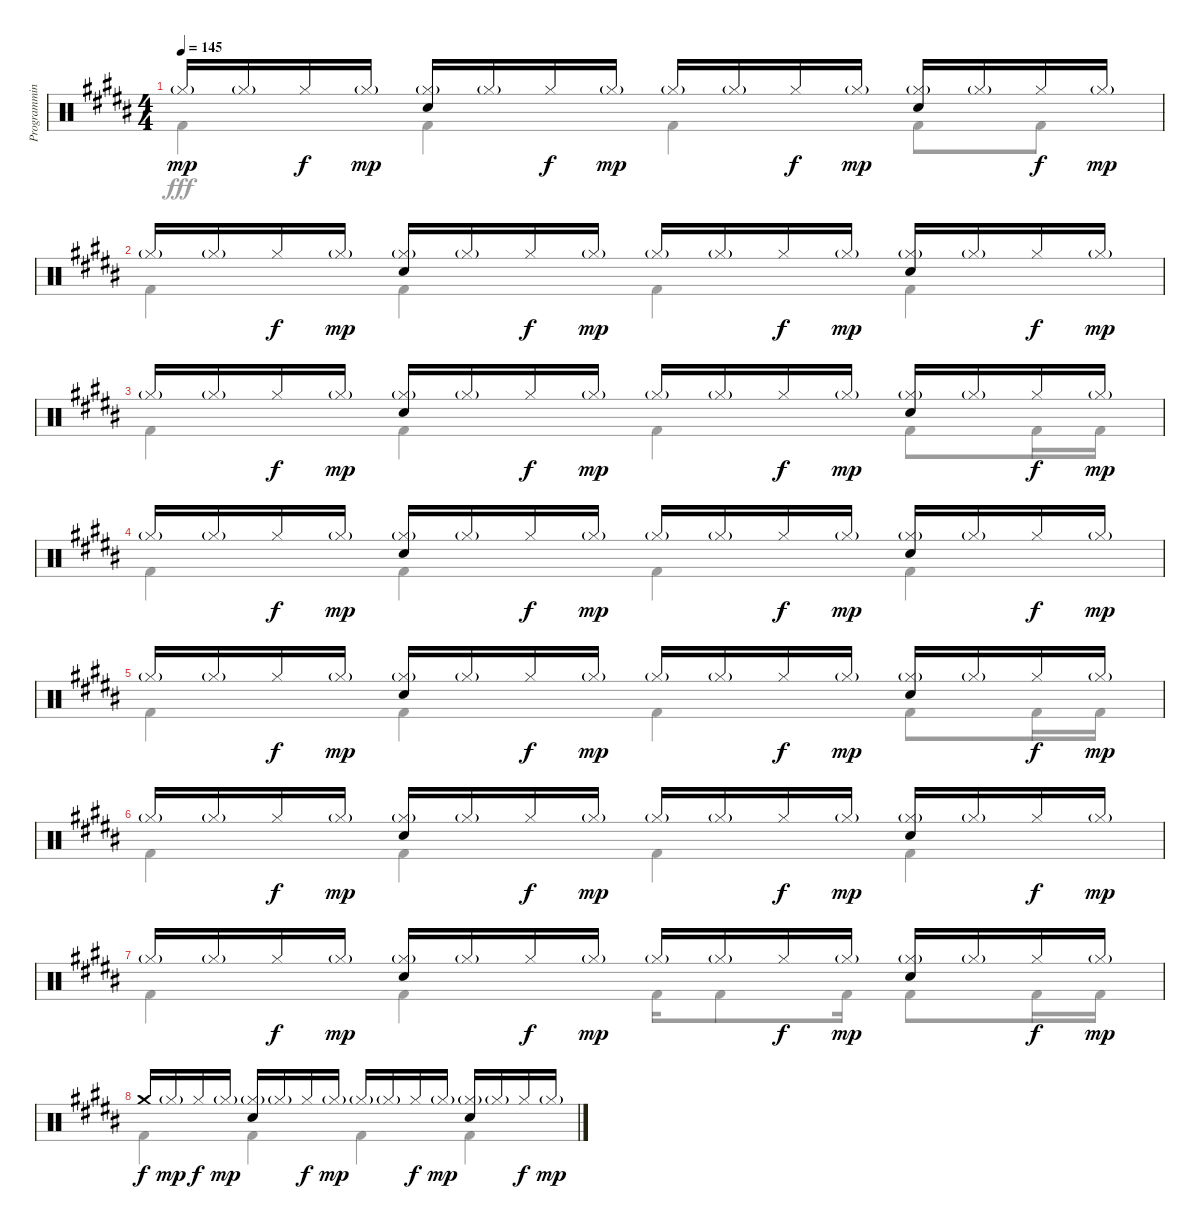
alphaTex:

\track ("Programming Drums I" "Programmin") {instrument percussion}
\staff {score}
\articulation defaults
\voice
\ts (4 4)
\tempo 145
\clef neutral
\ks b "Hi-Hat (closed)"{g}.16{dy mp} "Hi-Hat (closed)"{g}.16 "Hi-Hat (closed)".16{dy f} "Hi-Hat (closed)"{g}.16{dy mp}
("Hi-Hat (closed)"{g} "Snare (hit) 2").16 "Hi-Hat (closed)"{g}.16 "Hi-Hat (closed)".16{dy f} "Hi-Hat (closed)"{g}.16{dy mp} "Hi-Hat (closed)"{g}.16 "Hi-Hat (closed)"{g}.16 "Hi-Hat (closed)".16{dy f} "Hi-Hat (closed)"{g}.16{dy mp} ("Hi-Hat (closed)"{g} "Snare (hit) 2").16 "Hi-Hat (closed)"{g}.16 "Hi-Hat (closed)".16{dy f} "Hi-Hat (closed)"{g}.16{dy mp} |
"Hi-Hat (closed)"{g}.16 "Hi-Hat (closed)"{g}.16 "Hi-Hat (closed)".16{dy f} "Hi-Hat (closed)"{g}.16{dy mp} ("Hi-Hat (closed)"{g} "Snare (hit) 2").16 "Hi-Hat (closed)"{g}.16 "Hi-Hat (closed)".16{dy f} "Hi-Hat (closed)"{g}.16{dy mp} "Hi-Hat (closed)"{g}.16 "Hi-Hat (closed)"{g}.16 "Hi-Hat (closed)".16{dy f} "Hi-Hat (closed)"{g}.16{dy mp} ("Hi-Hat (closed)"{g} "Snare (hit) 2").16 "Hi-Hat (closed)"{g}.16 "Hi-Hat (closed)".16{dy f} "Hi-Hat (closed)"{g}.16{dy mp} |
"Hi-Hat (closed)"{g}.16 "Hi-Hat (closed)"{g}.16 "Hi-Hat (closed)".16{dy f} "Hi-Hat (closed)"{g}.16{dy mp} ("Hi-Hat (closed)"{g} "Snare (hit) 2").16 "Hi-Hat (closed)"{g}.16 "Hi-Hat (closed)".16{dy f} "Hi-Hat (closed)"{g}.16{dy mp} "Hi-Hat (closed)"{g}.16 "Hi-Hat (closed)"{g}.16 "Hi-Hat (closed)".16{dy f} "Hi-Hat (closed)"{g}.16{dy mp} ("Hi-Hat (closed)"{g} "Snare (hit) 2").16 "Hi-Hat (closed)"{g}.16 "Hi-Hat (closed)".16{dy f} "Hi-Hat (closed)"{g}.16{dy mp} |
"Hi-Hat (closed)"{g}.16 "Hi-Hat (closed)"{g}.16 "Hi-Hat (closed)".16{dy f} "Hi-Hat (closed)"{g}.16{dy mp} ("Hi-Hat (closed)"{g} "Snare (hit) 2").16 "Hi-Hat (closed)"{g}.16 "Hi-Hat (closed)".16{dy f} "Hi-Hat (closed)"{g}.16{dy mp} "Hi-Hat (closed)"{g}.16 "Hi-Hat (closed)"{g}.16 "Hi-Hat (closed)".16{dy f} "Hi-Hat (closed)"{g}.16{dy mp} ("Hi-Hat (closed)"{g} "Snare (hit) 2").16 "Hi-Hat (closed)"{g}.16 "Hi-Hat (closed)".16{dy f} "Hi-Hat (closed)"{g}.16{dy mp} |
"Hi-Hat (closed)"{g}.16 "Hi-Hat (closed)"{g}.16 "Hi-Hat (closed)".16{dy f} "Hi-Hat (closed)"{g}.16{dy mp} ("Hi-Hat (closed)"{g} "Snare (hit) 2").16 "Hi-Hat (closed)"{g}.16 "Hi-Hat (closed)".16{dy f} "Hi-Hat (closed)"{g}.16{dy mp} "Hi-Hat (closed)"{g}.16 "Hi-Hat (closed)"{g}.16 "Hi-Hat (closed)".16{dy f} "Hi-Hat (closed)"{g}.16{dy mp} ("Hi-Hat (closed)"{g} "Snare (hit) 2").16 "Hi-Hat (closed)"{g}.16 "Hi-Hat (closed)".16{dy f} "Hi-Hat (closed)"{g}.16{dy mp} |
"Hi-Hat (closed)"{g}.16 "Hi-Hat (closed)"{g}.16 "Hi-Hat (closed)".16{dy f} "Hi-Hat (closed)"{g}.16{dy mp} ("Hi-Hat (closed)"{g} "Snare (hit) 2").16 "Hi-Hat (closed)"{g}.16 "Hi-Hat (closed)".16{dy f} "Hi-Hat (closed)"{g}.16{dy mp} "Hi-Hat (closed)"{g}.16 "Hi-Hat (closed)"{g}.16 "Hi-Hat (closed)".16{dy f} "Hi-Hat (closed)"{g}.16{dy mp} ("Hi-Hat (closed)"{g} "Snare (hit) 2").16 "Hi-Hat (closed)"{g}.16 "Hi-Hat (closed)".16{dy f} "Hi-Hat (closed)"{g}.16{dy mp} |
"Hi-Hat (closed)"{g}.16 "Hi-Hat (closed)"{g}.16 "Hi-Hat (closed)".16{dy f} "Hi-Hat (closed)"{g}.16{dy mp} ("Hi-Hat (closed)"{g} "Snare (hit) 2").16 "Hi-Hat (closed)"{g}.16 "Hi-Hat (closed)".16{dy f} "Hi-Hat (closed)"{g}.16{dy mp} "Hi-Hat (closed)"{g}.16 "Hi-Hat (closed)"{g}.16 "Hi-Hat (closed)".16{dy f} "Hi-Hat (closed)"{g}.16{dy mp} ("Hi-Hat (closed)"{g} "Snare (hit) 2").16 "Hi-Hat (closed)"{g}.16 "Hi-Hat (closed)".16{dy f} "Hi-Hat (closed)"{g}.16{dy mp} |
"Crash medium (hit)".16{dy f} "Hi-Hat (closed)"{g}.16{dy mp} "Hi-Hat (closed)".16{dy f} "Hi-Hat (closed)"{g}.16{dy mp} ("Hi-Hat (closed)"{g} "Snare (hit) 2").16 "Hi-Hat (closed)"{g}.16 "Hi-Hat (closed)".16{dy f} "Hi-Hat (closed)"{g}.16{dy mp} "Hi-Hat (closed)"{g}.16 "Hi-Hat (closed)"{g}.16 "Hi-Hat (closed)".16{dy f} "Hi-Hat (closed)"{g}.16{dy mp} ("Hi-Hat (closed)"{g} "Snare (hit) 2").16 "Hi-Hat (closed)"{g}.16 "Hi-Hat (closed)".16{dy f} "Hi-Hat (closed)"{g}.16{dy mp}
\voice
\clef neutral
\ottava regular
\simile none
\ks b "Kick (hit) 2".4{dy fff} "Kick (hit) 2".4 "Kick (hit) 2".4 "Kick (hit) 2".8 "Kick (hit) 2".8
|
"Kick (hit) 2".4 "Kick (hit) 2".4 "Kick (hit) 2".4 "Kick (hit) 2".4 |
"Kick (hit) 2".4 "Kick (hit) 2".4 "Kick (hit) 2".4 "Kick (hit) 2".8 "Kick (hit) 2".16 "Kick (hit) 2".16 |
"Kick (hit) 2".4 "Kick (hit) 2".4 "Kick (hit) 2".4 "Kick (hit) 2".4 |
"Kick (hit) 2".4 "Kick (hit) 2".4 "Kick (hit) 2".4 "Kick (hit) 2".8 "Kick (hit) 2".16 "Kick (hit) 2".16 |
"Kick (hit) 2".4 "Kick (hit) 2".4 "Kick (hit) 2".4 "Kick (hit) 2".4 |
"Kick (hit) 2".4 "Kick (hit) 2".4 "Kick (hit) 2".16 "Kick (hit) 2".8 "Kick (hit) 2".16 "Kick (hit) 2".8 "Kick (hit) 2".16 "Kick (hit) 2".16 |
"Kick (hit) 2".4 "Kick (hit) 2".4 "Kick (hit) 2".4 "Kick (hit) 2".4
